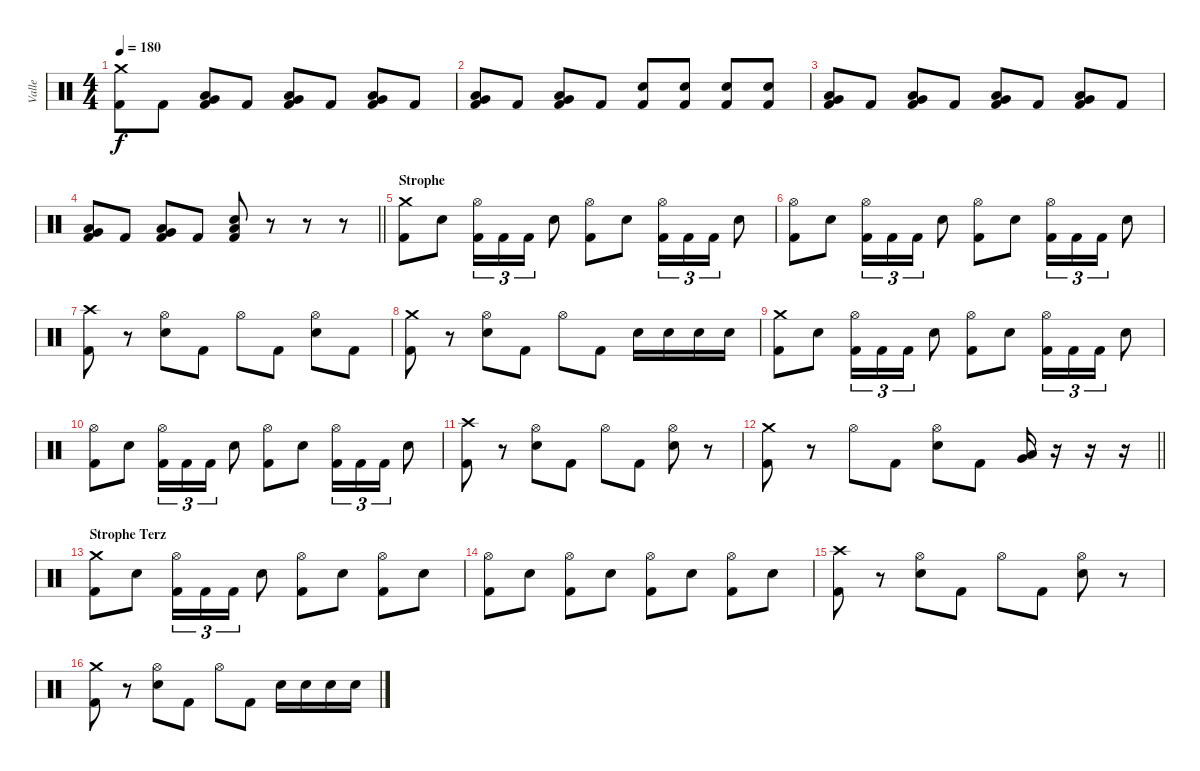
\track ("Valle" "Valle") {instrument percussion}
\staff {score}
\articulation defaults
\ts (4 4)
\tempo 180
\clef neutral
\ks c
("Crash medium (hit)" "Kick (hit) 2").8{dy f} "Kick (hit) 2".8 ("Very Low Tom (hit)" "Low Floor Tom (hit)" "Kick (hit) 2").8 "Kick (hit) 2".8 ("Very Low Tom (hit)" "Low Floor Tom (hit)" "Kick (hit) 2").8 "Kick (hit) 2".8 ("Very Low Tom (hit)" "Low Floor Tom (hit)" "Kick (hit) 2").8 "Kick (hit) 2".8 |
("Very Low Tom (hit)" "Low Floor Tom (hit)" "Kick (hit) 2").8 "Kick (hit) 2".8 ("Very Low Tom (hit)" "Low Floor Tom (hit)" "Kick (hit) 2").8 "Kick (hit) 2".8 ("Snare (hit) 2" "Kick (hit) 2").8 ("Snare (hit) 2" "Kick (hit) 2").8 ("Snare (hit) 2" "Kick (hit) 2").8 ("Snare (hit) 2" "Kick (hit) 2").8 |
("Very Low Tom (hit)" "Low Floor Tom (hit)" "Kick (hit) 2").8 "Kick (hit) 2".8 ("Very Low Tom (hit)" "Low Floor Tom (hit)" "Kick (hit) 2").8 "Kick (hit) 2".8 ("Very Low Tom (hit)" "Low Floor Tom (hit)" "Kick (hit) 2").8 "Kick (hit) 2".8 ("Very Low Tom (hit)" "Low Floor Tom (hit)" "Kick (hit) 2").8 "Kick (hit) 2".8 |
\barLineRight lightlight
("Very Low Tom (hit)" "Low Floor Tom (hit)" "Kick (hit) 2").8 "Kick (hit) 2".8 ("Very Low Tom (hit)" "Low Floor Tom (hit)" "Kick (hit) 2").8 "Kick (hit) 2".8 ("Low Floor Tom (hit)" "Snare (hit) 2" "Kick (hit) 2").8 r.8 r.8 r.8 |
\section ("" "Strophe")
("Crash medium (hit)" "Kick (hit) 2").8{volume 10} "Snare (hit) 2".8 ("Hi-Hat (open)" "Kick (hit) 2").16{tu (3 2)} "Kick (hit) 2".16{tu (3 2)} "Kick (hit) 2".16{tu (3 2)} "Snare (hit) 2".8 ("Hi-Hat (open)" "Kick (hit) 2").8 "Snare (hit) 2".8 ("Hi-Hat (open)" "Kick (hit) 2").16{tu (3 2)} "Kick (hit) 2".16{tu (3 2)} "Kick (hit) 2".16{tu (3 2)} "Snare (hit) 2".8 |
("Hi-Hat (open)" "Kick (hit) 2").8 "Snare (hit) 2".8 ("Hi-Hat (open)" "Kick (hit) 2").16{tu (3 2)} "Kick (hit) 2".16{tu (3 2)} "Kick (hit) 2".16{tu (3 2)} "Snare (hit) 2".8 ("Hi-Hat (open)" "Kick (hit) 2").8 "Snare (hit) 2".8 ("Hi-Hat (open)" "Kick (hit) 2").16{tu (3 2)} "Kick (hit) 2".16{tu (3 2)} "Kick (hit) 2".16{tu (3 2)} "Snare (hit) 2".8 |
("Crash high (hit)" "Kick (hit) 2").8 r.8 ("Hi-Hat (open)" "Snare (hit) 2").8 "Kick (hit) 2".8 "Hi-Hat (open)".8 "Kick (hit) 2".8 ("Hi-Hat (open)" "Snare (hit) 2").8 "Kick (hit) 2".8 |
("Crash medium (hit)" "Kick (hit) 2").8 r.8 ("Hi-Hat (open)" "Snare (hit) 2").8 "Kick (hit) 2".8 "Hi-Hat (open)".8 "Kick (hit) 2".8 "Snare (hit) 2".16 "Snare (hit) 2".16 "Snare (hit) 2".16 "Snare (hit) 2".16 |
("Crash medium (hit)" "Kick (hit) 2").8 "Snare (hit) 2".8 ("Hi-Hat (open)" "Kick (hit) 2").16{tu (3 2)} "Kick (hit) 2".16{tu (3 2)} "Kick (hit) 2".16{tu (3 2)} "Snare (hit) 2".8 ("Hi-Hat (open)" "Kick (hit) 2").8 "Snare (hit) 2".8 ("Hi-Hat (open)" "Kick (hit) 2").16{tu (3 2)} "Kick (hit) 2".16{tu (3 2)} "Kick (hit) 2".16{tu (3 2)} "Snare (hit) 2".8 |
("Hi-Hat (open)" "Kick (hit) 2").8 "Snare (hit) 2".8 ("Hi-Hat (open)" "Kick (hit) 2").16{tu (3 2)} "Kick (hit) 2".16{tu (3 2)} "Kick (hit) 2".16{tu (3 2)} "Snare (hit) 2".8 ("Hi-Hat (open)" "Kick (hit) 2").8 "Snare (hit) 2".8 ("Hi-Hat (open)" "Kick (hit) 2").16{tu (3 2)} "Kick (hit) 2".16{tu (3 2)} "Kick (hit) 2".16{tu (3 2)} "Snare (hit) 2".8 |
("Crash high (hit)" "Kick (hit) 2").8 r.8 ("Hi-Hat (open)" "Snare (hit) 2").8 "Kick (hit) 2".8 "Hi-Hat (open)".8 "Kick (hit) 2".8 ("Hi-Hat (open)" "Snare (hit) 2").8 r.8 |
\barLineRight lightlight
("Crash medium (hit)" "Kick (hit) 2").8 r.8 "Hi-Hat (open)".8 "Kick (hit) 2".8 ("Hi-Hat (open)" "Snare (hit) 2").8 "Kick (hit) 2".8 ("Very Low Tom (hit)" "Low Floor Tom (hit)").16 r.16 r.16 r.16 |
\section ("" "Strophe Terz")
("Crash medium (hit)" "Kick (hit) 2").8{volume 10} "Snare (hit) 2".8 ("Hi-Hat (open)" "Kick (hit) 2").16{tu (3 2)} "Kick (hit) 2".16{tu (3 2)} "Kick (hit) 2".16{tu (3 2)} "Snare (hit) 2".8 ("Hi-Hat (open)" "Kick (hit) 2").8 "Snare (hit) 2".8 ("Hi-Hat (open)" "Kick (hit) 2").8 "Snare (hit) 2".8 |
("Hi-Hat (open)" "Kick (hit) 2").8 "Snare (hit) 2".8 ("Hi-Hat (open)" "Kick (hit) 2").8 "Snare (hit) 2".8 ("Hi-Hat (open)" "Kick (hit) 2").8 "Snare (hit) 2".8 ("Hi-Hat (open)" "Kick (hit) 2").8 "Snare (hit) 2".8 |
("Crash high (hit)" "Kick (hit) 2").8 r.8 ("Hi-Hat (open)" "Snare (hit) 2").8 "Kick (hit) 2".8 "Hi-Hat (open)".8 "Kick (hit) 2".8 ("Hi-Hat (open)" "Snare (hit) 2").8 r.8 |
("Crash medium (hit)" "Kick (hit) 2").8 r.8 ("Hi-Hat (open)" "Snare (hit) 2").8 "Kick (hit) 2".8 "Hi-Hat (open)".8 "Kick (hit) 2".8 "Snare (hit) 2".16 "Snare (hit) 2".16 "Snare (hit) 2".16 "Snare (hit) 2".16
